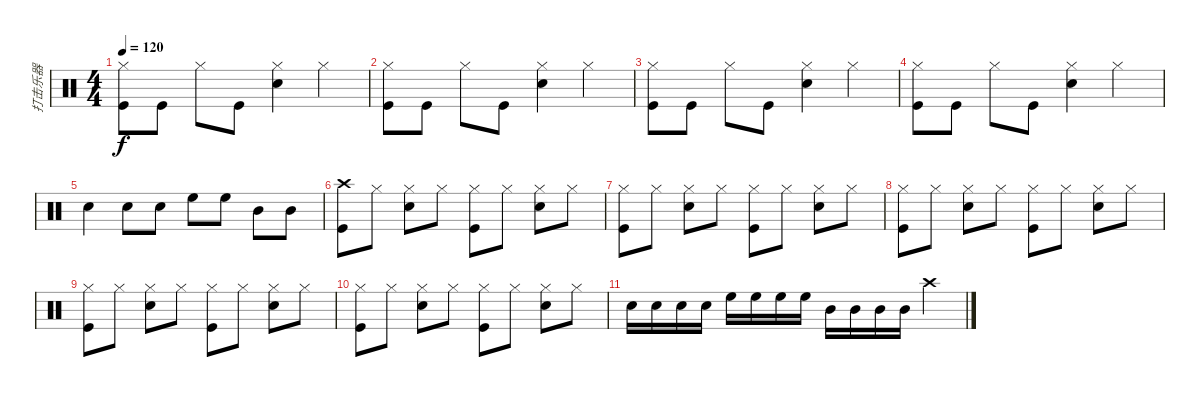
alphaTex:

\track ("打击乐器" "打击乐器") {instrument percussion}
\staff {score}
\articulation defaults
\ts (4 4)
\tempo 120
\clef neutral
\ks c
("Hi-Hat (closed)" "Kick (hit)").8{dy f} "Kick (hit)".8 "Hi-Hat (closed)".8 "Kick (hit)".8 ("Hi-Hat (closed)" "Electric Snare (hit)").4 "Hi-Hat (closed)".4 |
("Hi-Hat (closed)" "Kick (hit)").8 "Kick (hit)".8 "Hi-Hat (closed)".8 "Kick (hit)".8 ("Hi-Hat (closed)" "Electric Snare (hit)").4 "Hi-Hat (closed)".4 |
("Hi-Hat (closed)" "Kick (hit)").8 "Kick (hit)".8 "Hi-Hat (closed)".8 "Kick (hit)".8 ("Hi-Hat (closed)" "Electric Snare (hit)").4 "Hi-Hat (closed)".4 |
("Hi-Hat (closed)" "Kick (hit)").8 "Kick (hit)".8 "Hi-Hat (closed)".8 "Kick (hit)".8 ("Hi-Hat (closed)" "Electric Snare (hit)").4 "Hi-Hat (closed)".4 |
"Electric Snare (hit)".4 "Electric Snare (hit)".8 "Electric Snare (hit)".8 "High Floor Tom (hit)".8 "High Floor Tom (hit)".8 "Mid Tom (hit)".8 "Mid Tom (hit)".8 |
("Crash high (hit)" "Kick (hit)").8 "Hi-Hat (closed)".8 ("Hi-Hat (closed)" "Electric Snare (hit)").8 "Hi-Hat (closed)".8 ("Hi-Hat (closed)" "Kick (hit)").8 "Hi-Hat (closed)".8 ("Hi-Hat (closed)" "Electric Snare (hit)").8 "Hi-Hat (closed)".8 |
("Hi-Hat (closed)" "Kick (hit)").8 "Hi-Hat (closed)".8 ("Hi-Hat (closed)" "Electric Snare (hit)").8 "Hi-Hat (closed)".8 ("Hi-Hat (closed)" "Kick (hit)").8 "Hi-Hat (closed)".8 ("Hi-Hat (closed)" "Electric Snare (hit)").8 "Hi-Hat (closed)".8 |
("Hi-Hat (closed)" "Kick (hit)").8 "Hi-Hat (closed)".8 ("Hi-Hat (closed)" "Electric Snare (hit)").8 "Hi-Hat (closed)".8 ("Hi-Hat (closed)" "Kick (hit)").8 "Hi-Hat (closed)".8 ("Hi-Hat (closed)" "Electric Snare (hit)").8 "Hi-Hat (closed)".8 |
("Hi-Hat (closed)" "Kick (hit)").8 "Hi-Hat (closed)".8 ("Hi-Hat (closed)" "Electric Snare (hit)").8 "Hi-Hat (closed)".8 ("Hi-Hat (closed)" "Kick (hit)").8 "Hi-Hat (closed)".8 ("Hi-Hat (closed)" "Electric Snare (hit)").8 "Hi-Hat (closed)".8 |
("Hi-Hat (closed)" "Kick (hit)").8 "Hi-Hat (closed)".8 ("Hi-Hat (closed)" "Electric Snare (hit)").8 "Hi-Hat (closed)".8 ("Hi-Hat (closed)" "Kick (hit)").8 "Hi-Hat (closed)".8 ("Hi-Hat (closed)" "Electric Snare (hit)").8 "Hi-Hat (closed)".8 |
"Electric Snare (hit)".16 "Electric Snare (hit)".16 "Electric Snare (hit)".16 "Electric Snare (hit)".16 "High Floor Tom (hit)".16 "High Floor Tom (hit)".16 "High Floor Tom (hit)".16 "High Floor Tom (hit)".16 "Mid Tom (hit)".16 "Mid Tom (hit)".16 "Mid Tom (hit)".16 "Mid Tom (hit)".16 "Crash high (hit)".4
